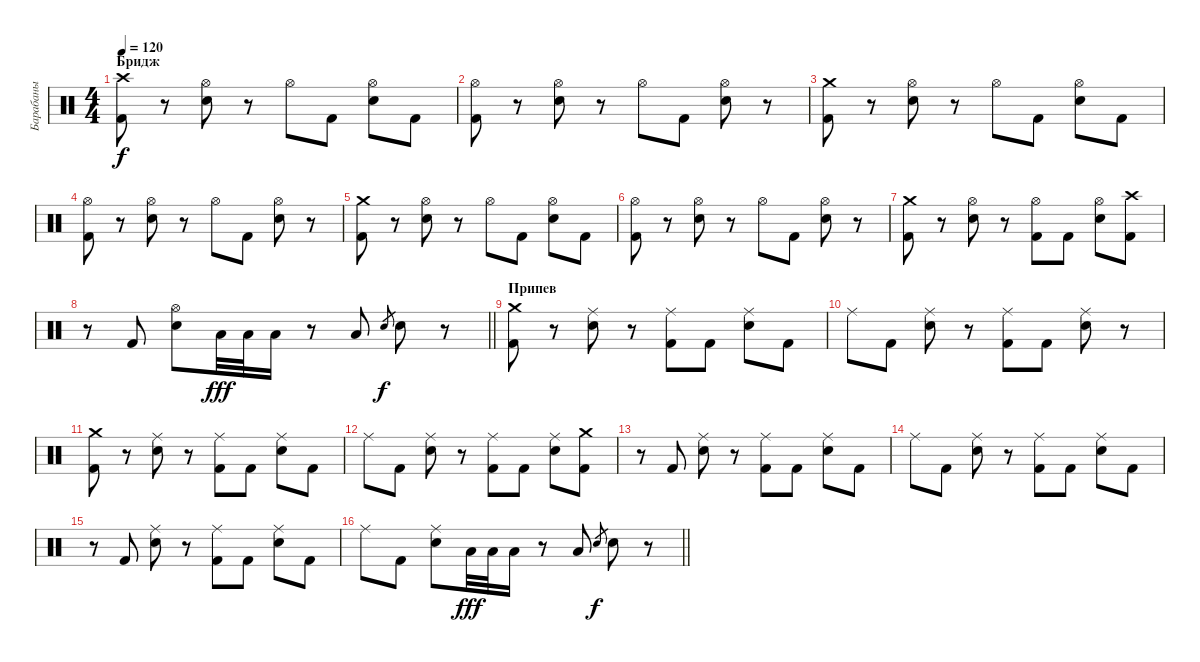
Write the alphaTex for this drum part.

\track ("Барабаны" "Барабаны") {instrument percussion}
\staff {score}
\articulation defaults
\ts (4 4)
\section ("" "Бридж")
\tempo 120
\clef neutral
\ks c
("Kick (hit) 2" "Crash high (hit)").8{dy f} r.8 ("Hi-Hat (open)" "Snare (hit) 2").8 r.8 "Hi-Hat (open)".8 "Kick (hit) 2".8 ("Hi-Hat (open)" "Snare (hit) 2").8 "Kick (hit) 2".8 |
("Hi-Hat (open)" "Kick (hit) 2").8 r.8 ("Hi-Hat (open)" "Snare (hit) 2").8 r.8 "Hi-Hat (open)".8 "Kick (hit) 2".8 ("Hi-Hat (open)" "Snare (hit) 2").8 r.8 |
("Kick (hit) 2" "Crash medium (hit)").8 r.8 ("Hi-Hat (open)" "Snare (hit) 2").8 r.8 "Hi-Hat (open)".8 "Kick (hit) 2".8 ("Hi-Hat (open)" "Snare (hit) 2").8 "Kick (hit) 2".8 |
("Hi-Hat (open)" "Kick (hit) 2").8 r.8 ("Hi-Hat (open)" "Snare (hit) 2").8 r.8 "Hi-Hat (open)".8 "Kick (hit) 2".8 ("Hi-Hat (open)" "Snare (hit) 2").8 r.8 |
("Kick (hit) 2" "Crash medium (hit)").8 r.8 ("Hi-Hat (open)" "Snare (hit) 2").8 r.8 "Hi-Hat (open)".8 "Kick (hit) 2".8 ("Hi-Hat (open)" "Snare (hit) 2").8 "Kick (hit) 2".8 |
("Hi-Hat (open)" "Kick (hit) 2").8 r.8 ("Hi-Hat (open)" "Snare (hit) 2").8 r.8 "Hi-Hat (open)".8 "Kick (hit) 2".8 ("Hi-Hat (open)" "Snare (hit) 2").8 r.8 |
("Kick (hit) 2" "Crash medium (hit)").8 r.8 ("Hi-Hat (open)" "Snare (hit) 2").8 r.8 ("Hi-Hat (open)" "Kick (hit) 2").8 "Kick (hit) 2".8 ("Hi-Hat (open)" "Snare (hit) 2").8 ("Kick (hit) 2" "Crash high (hit)").8 |
\barLineRight lightlight
r.8 "Kick (hit) 2".8 ("Hi-Hat (open)" "Snare (hit) 2").8 "Low Tom (hit)".32{dy fff} "Low Tom (hit)".32 "Low Tom (hit)".16 r.8 "Low Tom (hit)".8 "Snare (hit) 2".8{gr dy f} "Snare (hit) 2".8 r.8 |
\section ("" "Припев")
("Kick (hit) 2" "Crash medium (hit)").8 r.8 ("Ride (middle)" "Snare (hit) 2").8 r.8 ("Ride (middle)" "Kick (hit) 2").8 "Kick (hit) 2".8 ("Ride (middle)" "Snare (hit) 2").8 "Kick (hit) 2".8 |
"Ride (middle)".8 "Kick (hit) 2".8 ("Ride (middle)" "Snare (hit) 2").8 r.8 ("Ride (middle)" "Kick (hit) 2").8 "Kick (hit) 2".8 ("Ride (middle)" "Snare (hit) 2").8 r.8 |
("Kick (hit) 2" "Crash medium (hit)").8 r.8 ("Ride (middle)" "Snare (hit) 2").8 r.8 ("Ride (middle)" "Kick (hit) 2").8 "Kick (hit) 2".8 ("Ride (middle)" "Snare (hit) 2").8 "Kick (hit) 2".8 |
"Ride (middle)".8 "Kick (hit) 2".8 ("Ride (middle)" "Snare (hit) 2").8 r.8 ("Ride (middle)" "Kick (hit) 2").8 "Kick (hit) 2".8 ("Ride (middle)" "Snare (hit) 2").8 ("Kick (hit) 2" "Crash medium (hit)").8 |
r.8 "Kick (hit) 2".8 ("Ride (middle)" "Snare (hit) 2").8 r.8 ("Ride (middle)" "Kick (hit) 2").8 "Kick (hit) 2".8 ("Ride (middle)" "Snare (hit) 2").8 "Kick (hit) 2".8 |
"Ride (middle)".8 "Kick (hit) 2".8 ("Ride (middle)" "Snare (hit) 2").8 r.8 ("Ride (middle)" "Kick (hit) 2").8 "Kick (hit) 2".8 ("Ride (middle)" "Snare (hit) 2").8 "Kick (hit) 2".8 |
r.8 "Kick (hit) 2".8 ("Ride (middle)" "Snare (hit) 2").8 r.8 ("Ride (middle)" "Kick (hit) 2").8 "Kick (hit) 2".8 ("Ride (middle)" "Snare (hit) 2").8 "Kick (hit) 2".8 |
\barLineRight lightlight "Ride (middle)".8 "Kick (hit) 2".8
("Ride (middle)" "Snare (hit) 2").8 "Low Tom (hit)".32{dy fff} "Low Tom (hit)".32 "Low Tom (hit)".16 r.8 "Low Tom (hit)".8 "Snare (hit) 2".8{gr dy f} "Snare (hit) 2".8 r.8
